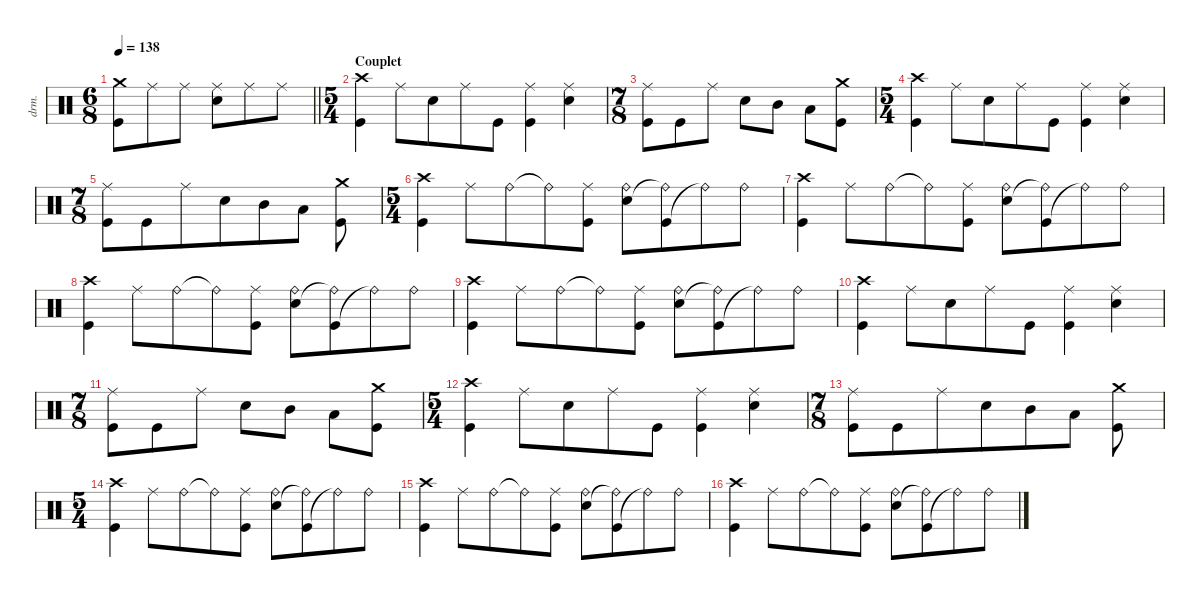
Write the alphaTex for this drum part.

\defaultSystemsLayout 4
\hideDynamics
\bracketExtendMode nobrackets
\track ("Percussions" "drm.") {instrument percussion}
\staff {score}
\articulation defaults
\ts (6 8)
\tempo 138
\clef neutral
\barLineRight lightlight
\ks aminor
("Crash medium (hit)" "Kick (hit)").8{dy f} "Ride (middle)".8 "Ride (middle)".8 ("Ride (middle)" "Snare (hit) 2").8 "Ride (middle)".8 "Ride (middle)".8 |
\ts (5 4)
\beaming (8 6 4)
\section ("" "Couplet")
("Crash high (hit)" "Kick (hit)").4 "Ride (middle)".8 "Snare (hit) 2".8 "Ride (middle)".8 "Kick (hit)".8 ("Ride (middle)" "Kick (hit)").4 ("Ride (middle)" "Snare (hit) 2").4 |
\ts (7 8)
\beaming (8 3 2 2)
("Ride (middle)" "Kick (hit)").8 "Kick (hit)".8 "Ride (middle)".8 "Snare (hit) 2".8 "Mid Tom (hit)".8 "Low Tom (hit)".8 ("Kick (hit)" "Crash medium (hit)").8 |
\ts (5 4)
\beaming (8 6 4)
("Crash high (hit)" "Kick (hit)").4 "Ride (middle)".8 "Snare (hit) 2".8 "Ride (middle)".8 "Kick (hit)".8 ("Ride (middle)" "Kick (hit)").4 ("Ride (middle)" "Snare (hit) 2").4 |
\ts (7 8)
\beaming (8 6 4)
("Ride (middle)" "Kick (hit)").8 "Kick (hit)".8 "Ride (middle)".8 "Snare (hit) 2".8 "Mid Tom (hit)".8 "Low Tom (hit)".8 ("Kick (hit)" "Crash medium (hit)").8 |
\ts (5 4)
\beaming (8 6 4)
("Crash high (hit)" "Kick (hit)").4 "Ride (middle)".8 "Ride (bell)".8 "Ride (bell)"{t}.8 ("Ride (middle)" "Kick (hit)").8 ("Ride (bell)" "Snare (hit) 2").8 ("Kick (hit)" "Ride (bell)"{t}).8 "Ride (bell)"{t}.8 "Ride (bell)".8 |
("Crash high (hit)" "Kick (hit)").4 "Ride (middle)".8 "Ride (bell)".8 "Ride (bell)"{t}.8 ("Ride (middle)" "Kick (hit)").8 ("Ride (bell)" "Snare (hit) 2").8 ("Kick (hit)" "Ride (bell)"{t}).8 "Ride (bell)"{t}.8 "Ride (bell)".8 |
("Crash high (hit)" "Kick (hit)").4 "Ride (middle)".8 "Ride (bell)".8 "Ride (bell)"{t}.8 ("Ride (middle)" "Kick (hit)").8 ("Ride (bell)" "Snare (hit) 2").8 ("Kick (hit)" "Ride (bell)"{t}).8 "Ride (bell)"{t}.8 "Ride (bell)".8 |
("Crash high (hit)" "Kick (hit)").4 "Ride (middle)".8 "Ride (bell)".8 "Ride (bell)"{t}.8 ("Ride (middle)" "Kick (hit)").8 ("Ride (bell)" "Snare (hit) 2").8 ("Kick (hit)" "Ride (bell)"{t}).8 "Ride (bell)"{t}.8 "Ride (bell)".8 |
("Crash high (hit)" "Kick (hit)").4 "Ride (middle)".8 "Snare (hit) 2".8 "Ride (middle)".8 "Kick (hit)".8 ("Ride (middle)" "Kick (hit)").4 ("Ride (middle)" "Snare (hit) 2").4 |
\ts (7 8)
\beaming (8 3 2 2)
("Ride (middle)" "Kick (hit)").8 "Kick (hit)".8 "Ride (middle)".8 "Snare (hit) 2".8 "Mid Tom (hit)".8 "Low Tom (hit)".8 ("Kick (hit)" "Crash medium (hit)").8 |
\ts (5 4)
\beaming (8 6 4)
("Crash high (hit)" "Kick (hit)").4 "Ride (middle)".8 "Snare (hit) 2".8 "Ride (middle)".8 "Kick (hit)".8 ("Ride (middle)" "Kick (hit)").4 ("Ride (middle)" "Snare (hit) 2").4 |
\ts (7 8)
\beaming (8 6 4)
("Ride (middle)" "Kick (hit)").8 "Kick (hit)".8 "Ride (middle)".8 "Snare (hit) 2".8 "Mid Tom (hit)".8 "Low Tom (hit)".8 ("Kick (hit)" "Crash medium (hit)").8 |
\ts (5 4)
\beaming (8 6 4)
("Crash high (hit)" "Kick (hit)").4 "Ride (middle)".8 "Ride (bell)".8 "Ride (bell)"{t}.8 ("Ride (middle)" "Kick (hit)").8 ("Ride (bell)" "Snare (hit) 2").8 ("Kick (hit)" "Ride (bell)"{t}).8 "Ride (bell)"{t}.8 "Ride (bell)".8 |
("Crash high (hit)" "Kick (hit)").4 "Ride (middle)".8 "Ride (bell)".8 "Ride (bell)"{t}.8 ("Ride (middle)" "Kick (hit)").8 ("Ride (bell)" "Snare (hit) 2").8 ("Kick (hit)" "Ride (bell)"{t}).8 "Ride (bell)"{t}.8 "Ride (bell)".8 |
("Crash high (hit)" "Kick (hit)").4 "Ride (middle)".8 "Ride (bell)".8 "Ride (bell)"{t}.8 ("Ride (middle)" "Kick (hit)").8 ("Ride (bell)" "Snare (hit) 2").8 ("Kick (hit)" "Ride (bell)"{t}).8 "Ride (bell)"{t}.8 "Ride (bell)".8
